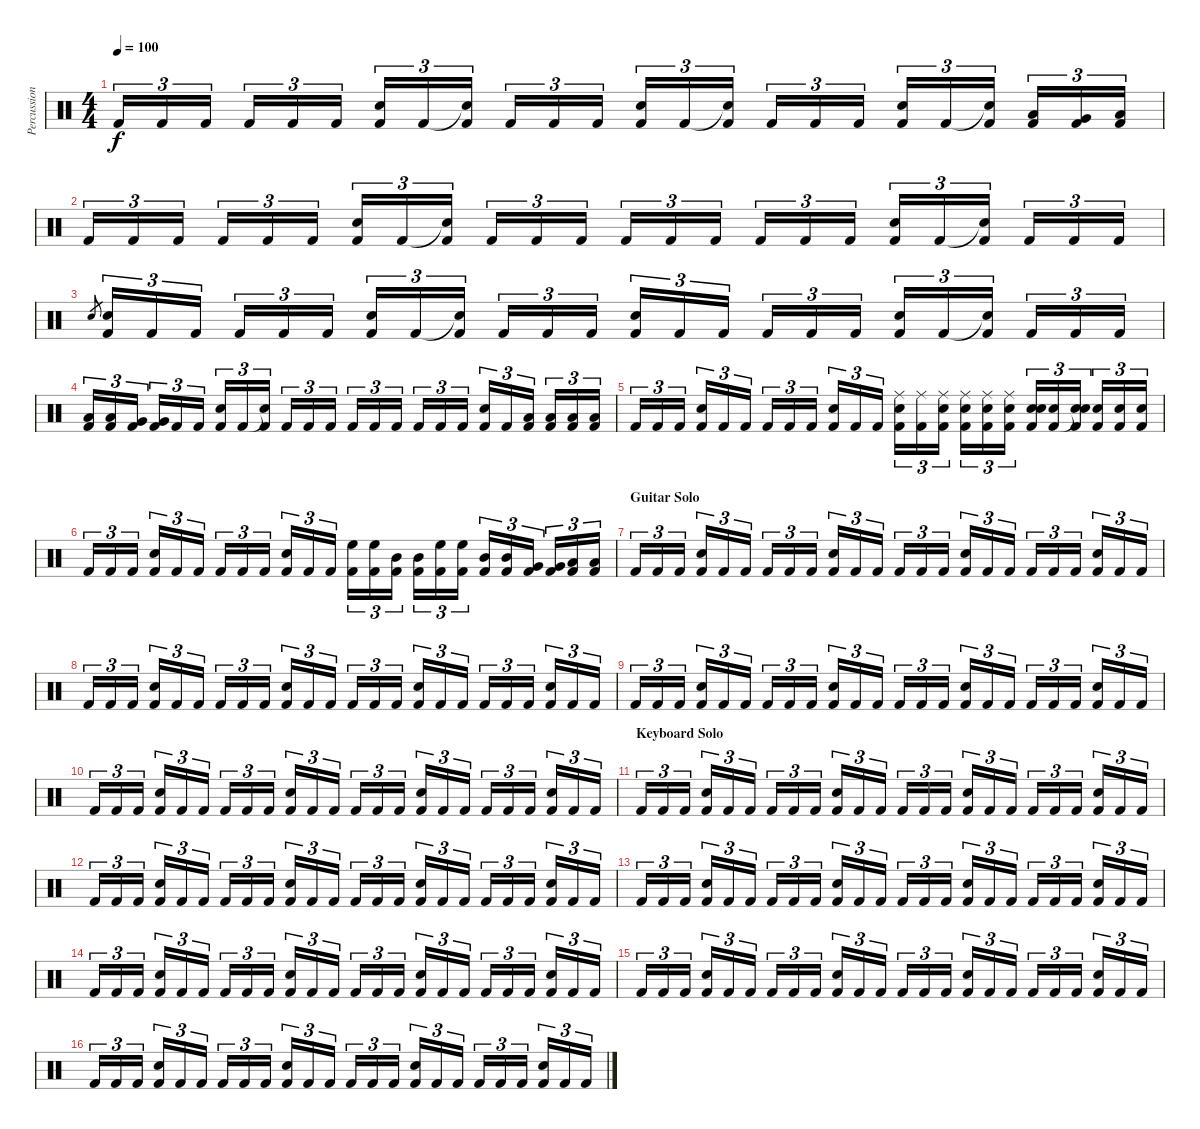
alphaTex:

\track ("Percussions" "Percussion") {instrument percussion}
\staff {score}
\articulation defaults
\ts (4 4)
\tempo 100
\clef neutral
\ks c "Kick (hit) 2".16{tu (3 2) dy f} "Kick (hit) 2".16{tu (3 2)} "Kick (hit) 2".16{tu (3 2)} "Kick (hit) 2".16{tu (3 2)} "Kick (hit) 2".16{tu (3 2)} "Kick (hit) 2".16{tu (3 2)}
("Snare (hit) 2" "Kick (hit) 2").16{tu (3 2)} "Kick (hit) 2".16{tu (3 2)} ("Snare (hit)"{t} "Kick (hit) 2").16{tu (3 2)} "Kick (hit) 2".16{tu (3 2)} "Kick (hit) 2".16{tu (3 2)} "Kick (hit) 2".16{tu (3 2)} ("Snare (hit) 2" "Kick (hit) 2").16{tu (3 2)} "Kick (hit) 2".16{tu (3 2)} ("Snare (hit)"{t} "Kick (hit) 2").16{tu (3 2)} "Kick (hit) 2".16{tu (3 2)} "Kick (hit) 2".16{tu (3 2)} "Kick (hit) 2".16{tu (3 2)} ("Snare (hit) 2" "Kick (hit) 2").16{tu (3 2)} "Kick (hit) 2".16{tu (3 2)} ("Snare (hit)"{t} "Kick (hit) 2").16{tu (3 2)} ("Low Tom (hit)" "Kick (hit) 2").16{tu (3 2)} ("Very Low Tom (hit)" "Kick (hit) 2").16{tu (3 2)} ("Low Floor Tom (hit)" "Kick (hit) 2").16{tu (3 2)} |
"Kick (hit) 2".16{tu (3 2)} "Kick (hit) 2".16{tu (3 2)} "Kick (hit) 2".16{tu (3 2)} "Kick (hit) 2".16{tu (3 2)} "Kick (hit) 2".16{tu (3 2)} "Kick (hit) 2".16{tu (3 2)} ("Snare (hit) 2" "Kick (hit) 2").16{tu (3 2)} "Kick (hit) 2".16{tu (3 2)} ("Snare (hit)"{t} "Kick (hit) 2").16{tu (3 2)} "Kick (hit) 2".16{tu (3 2)} "Kick (hit) 2".16{tu (3 2)} "Kick (hit) 2".16{tu (3 2)} "Kick (hit) 2".16{tu (3 2)} "Kick (hit) 2".16{tu (3 2)} "Kick (hit) 2".16{tu (3 2)} "Kick (hit) 2".16{tu (3 2)} "Kick (hit) 2".16{tu (3 2)} "Kick (hit) 2".16{tu (3 2)} ("Snare (hit) 2" "Kick (hit) 2").16{tu (3 2)} "Kick (hit) 2".16{tu (3 2)} ("Snare (hit)"{t} "Kick (hit) 2").16{tu (3 2)} "Kick (hit) 2".16{tu (3 2)} "Kick (hit) 2".16{tu (3 2)} "Kick (hit) 2".16{tu (3 2)} |
"Electric Snare (hit)".8{gr} ("Electric Snare (hit)" "Kick (hit) 2").16{tu (3 2)} "Kick (hit) 2".16{tu (3 2)} "Kick (hit) 2".16{tu (3 2)} "Kick (hit) 2".16{tu (3 2)} "Kick (hit) 2".16{tu (3 2)} "Kick (hit) 2".16{tu (3 2)} ("Snare (hit) 2" "Kick (hit) 2").16{tu (3 2)} "Kick (hit) 2".16{tu (3 2)} ("Snare (hit)"{t} "Kick (hit) 2").16{tu (3 2)} "Kick (hit) 2".16{tu (3 2)} "Kick (hit) 2".16{tu (3 2)} "Kick (hit) 2".16{tu (3 2)} ("Snare (hit) 2" "Kick (hit) 2").16{tu (3 2)} "Kick (hit) 2".16{tu (3 2)} "Kick (hit) 2".16{tu (3 2)} "Kick (hit) 2".16{tu (3 2)} "Kick (hit) 2".16{tu (3 2)} "Kick (hit) 2".16{tu (3 2)} ("Snare (hit) 2" "Kick (hit) 2").16{tu (3 2)} "Kick (hit) 2".16{tu (3 2)} ("Snare (hit)"{t} "Kick (hit) 2").16{tu (3 2)} "Kick (hit) 2".16{tu (3 2)} "Kick (hit) 2".16{tu (3 2)} "Kick (hit) 2".16{tu (3 2)} |
("Low Tom (hit)" "Kick (hit) 2").16{tu (3 2)} ("Low Tom (hit)" "Kick (hit) 2").16{tu (3 2)} ("Very Low Tom (hit)" "Kick (hit) 2").16{tu (3 2)} ("Very Low Tom (hit)" "Kick (hit) 2").16{tu (3 2)} "Kick (hit) 2".16{tu (3 2)} "Kick (hit) 2".16{tu (3 2)} ("Snare (hit) 2" "Kick (hit) 2").16{tu (3 2)} "Kick (hit) 2".16{tu (3 2)} ("Snare (hit)"{t} "Kick (hit) 2").16{tu (3 2)} "Kick (hit) 2".16{tu (3 2)} "Kick (hit) 2".16{tu (3 2)} "Kick (hit) 2".16{tu (3 2)} "Kick (hit) 2".16{tu (3 2)} "Kick (hit) 2".16{tu (3 2)} "Kick (hit) 2".16{tu (3 2)} "Kick (hit) 2".16{tu (3 2)} "Kick (hit) 2".16{tu (3 2)} "Kick (hit) 2".16{tu (3 2)} ("Snare (hit) 2" "Kick (hit) 2").16{tu (3 2)} "Kick (hit) 2".16{tu (3 2)} ("Low Tom (hit)" "Kick (hit) 2").16{tu (3 2)} ("Low Tom (hit)" "Kick (hit) 2").16{tu (3 2)} ("Low Floor Tom (hit)" "Kick (hit) 2").16{tu (3 2)} ("Low Floor Tom (hit)" "Kick (hit) 2").16{tu (3 2)} |
"Kick (hit) 2".16{tu (3 2)} "Kick (hit) 2".16{tu (3 2)} "Kick (hit) 2".16{tu (3 2)} ("Electric Snare (hit)" "Kick (hit) 2").16{tu (3 2)} "Kick (hit) 2".16{tu (3 2)} "Kick (hit) 2".16{tu (3 2)} "Kick (hit) 2".16{tu (3 2)} "Kick (hit) 2".16{tu (3 2)} "Kick (hit) 2".16{tu (3 2)} ("Electric Snare (hit)" "Kick (hit) 2").16{tu (3 2)} "Kick (hit) 2".16{tu (3 2)} "Kick (hit) 2".16{tu (3 2)} ("Electric Snare (hit)" "Ride (middle)" "Kick (hit) 2").16{tu (3 2)} ("Ride (middle)" "Kick (hit) 2").16{tu (3 2)} ("Electric Snare (hit)" "Ride (middle)" "Kick (hit) 2").16{tu (3 2)} ("Electric Snare (hit)" "Ride (middle)" "Kick (hit) 2").16{tu (3 2)} ("Electric Snare (hit)" "Ride (middle)" "Kick (hit) 2").16{tu (3 2)} ("Electric Snare (hit)" "Ride (middle)" "Kick (hit) 2").16{tu (3 2)} ("Electric Snare (hit)" "Snare (hit) 2" "Kick (hit) 2").16{tu (3 2)} ("Electric Snare (hit)" "Kick (hit) 2").16{tu (3 2)} ("Electric Snare (hit)" "Snare (hit)"{t} "Kick (hit) 2").16{tu (3 2)} ("Electric Snare (hit)" "Kick (hit) 2").16{tu (3 2)} ("Electric Snare (hit)" "Kick (hit) 2").16{tu (3 2)} ("Electric Snare (hit)" "Kick (hit) 2").16{tu (3 2)} |
"Kick (hit) 2".16{tu (3 2)} "Kick (hit) 2".16{tu (3 2)} "Kick (hit) 2".16{tu (3 2)} ("Electric Snare (hit)" "Kick (hit) 2").16{tu (3 2)} "Kick (hit) 2".16{tu (3 2)} "Kick (hit) 2".16{tu (3 2)} "Kick (hit) 2".16{tu (3 2)} "Kick (hit) 2".16{tu (3 2)} "Kick (hit) 2".16{tu (3 2)} ("Electric Snare (hit)" "Kick (hit) 2").16{tu (3 2)} "Kick (hit) 2".16{tu (3 2)} "Kick (hit) 2".16{tu (3 2)} ("High Floor Tom (hit)" "Kick (hit) 2").16{tu (3 2)} ("High Floor Tom (hit)" "Kick (hit) 2").16{tu (3 2)} ("Mid Tom (hit)" "Kick (hit) 2").16{tu (3 2)} ("Mid Tom (hit)" "Kick (hit) 2").16{tu (3 2)} ("High Floor Tom (hit)" "Kick (hit) 2").16{tu (3 2)} ("High Floor Tom (hit)" "Kick (hit) 2").16{tu (3 2)} ("Mid Tom (hit)" "Kick (hit) 2").16{tu (3 2)} ("Mid Tom (hit)" "Kick (hit) 2").16{tu (3 2)} ("Very Low Tom (hit)" "Kick (hit) 2").16{tu (3 2)} ("Very Low Tom (hit)" "Kick (hit) 2").16{tu (3 2)} ("Low Floor Tom (hit)" "Kick (hit) 2").16{tu (3 2)} ("Low Floor Tom (hit)" "Kick (hit) 2").16{tu (3 2)} |
\section ("" "Guitar Solo")
"Kick (hit) 2".16{tu (3 2)} "Kick (hit) 2".16{tu (3 2)} "Kick (hit) 2".16{tu (3 2)} ("Electric Snare (hit)" "Kick (hit) 2").16{tu (3 2)} "Kick (hit) 2".16{tu (3 2)} "Kick (hit) 2".16{tu (3 2)} "Kick (hit) 2".16{tu (3 2)} "Kick (hit) 2".16{tu (3 2)} "Kick (hit) 2".16{tu (3 2)} ("Electric Snare (hit)" "Kick (hit) 2").16{tu (3 2)} "Kick (hit) 2".16{tu (3 2)} "Kick (hit) 2".16{tu (3 2)} "Kick (hit) 2".16{tu (3 2)} "Kick (hit) 2".16{tu (3 2)} "Kick (hit) 2".16{tu (3 2)} ("Electric Snare (hit)" "Kick (hit) 2").16{tu (3 2)} "Kick (hit) 2".16{tu (3 2)} "Kick (hit) 2".16{tu (3 2)} "Kick (hit) 2".16{tu (3 2)} "Kick (hit) 2".16{tu (3 2)} "Kick (hit) 2".16{tu (3 2)} ("Electric Snare (hit)" "Kick (hit) 2").16{tu (3 2)} "Kick (hit) 2".16{tu (3 2)} "Kick (hit) 2".16{tu (3 2)} |
"Kick (hit) 2".16{tu (3 2)} "Kick (hit) 2".16{tu (3 2)} "Kick (hit) 2".16{tu (3 2)} ("Electric Snare (hit)" "Kick (hit) 2").16{tu (3 2)} "Kick (hit) 2".16{tu (3 2)} "Kick (hit) 2".16{tu (3 2)} "Kick (hit) 2".16{tu (3 2)} "Kick (hit) 2".16{tu (3 2)} "Kick (hit) 2".16{tu (3 2)} ("Electric Snare (hit)" "Kick (hit) 2").16{tu (3 2)} "Kick (hit) 2".16{tu (3 2)} "Kick (hit) 2".16{tu (3 2)} "Kick (hit) 2".16{tu (3 2)} "Kick (hit) 2".16{tu (3 2)} "Kick (hit) 2".16{tu (3 2)} ("Electric Snare (hit)" "Kick (hit) 2").16{tu (3 2)} "Kick (hit) 2".16{tu (3 2)} "Kick (hit) 2".16{tu (3 2)} "Kick (hit) 2".16{tu (3 2)} "Kick (hit) 2".16{tu (3 2)} "Kick (hit) 2".16{tu (3 2)} ("Electric Snare (hit)" "Kick (hit) 2").16{tu (3 2)} "Kick (hit) 2".16{tu (3 2)} "Kick (hit) 2".16{tu (3 2)} |
"Kick (hit) 2".16{tu (3 2)} "Kick (hit) 2".16{tu (3 2)} "Kick (hit) 2".16{tu (3 2)} ("Electric Snare (hit)" "Kick (hit) 2").16{tu (3 2)} "Kick (hit) 2".16{tu (3 2)} "Kick (hit) 2".16{tu (3 2)} "Kick (hit) 2".16{tu (3 2)} "Kick (hit) 2".16{tu (3 2)} "Kick (hit) 2".16{tu (3 2)} ("Electric Snare (hit)" "Kick (hit) 2").16{tu (3 2)} "Kick (hit) 2".16{tu (3 2)} "Kick (hit) 2".16{tu (3 2)} "Kick (hit) 2".16{tu (3 2)} "Kick (hit) 2".16{tu (3 2)} "Kick (hit) 2".16{tu (3 2)} ("Electric Snare (hit)" "Kick (hit) 2").16{tu (3 2)} "Kick (hit) 2".16{tu (3 2)} "Kick (hit) 2".16{tu (3 2)} "Kick (hit) 2".16{tu (3 2)} "Kick (hit) 2".16{tu (3 2)} "Kick (hit) 2".16{tu (3 2)} ("Electric Snare (hit)" "Kick (hit) 2").16{tu (3 2)} "Kick (hit) 2".16{tu (3 2)} "Kick (hit) 2".16{tu (3 2)} |
"Kick (hit) 2".16{tu (3 2)} "Kick (hit) 2".16{tu (3 2)} "Kick (hit) 2".16{tu (3 2)} ("Electric Snare (hit)" "Kick (hit) 2").16{tu (3 2)} "Kick (hit) 2".16{tu (3 2)} "Kick (hit) 2".16{tu (3 2)} "Kick (hit) 2".16{tu (3 2)} "Kick (hit) 2".16{tu (3 2)} "Kick (hit) 2".16{tu (3 2)} ("Electric Snare (hit)" "Kick (hit) 2").16{tu (3 2)} "Kick (hit) 2".16{tu (3 2)} "Kick (hit) 2".16{tu (3 2)} "Kick (hit) 2".16{tu (3 2)} "Kick (hit) 2".16{tu (3 2)} "Kick (hit) 2".16{tu (3 2)} ("Electric Snare (hit)" "Kick (hit) 2").16{tu (3 2)} "Kick (hit) 2".16{tu (3 2)} "Kick (hit) 2".16{tu (3 2)} "Kick (hit) 2".16{tu (3 2)} "Kick (hit) 2".16{tu (3 2)} "Kick (hit) 2".16{tu (3 2)} ("Electric Snare (hit)" "Kick (hit) 2").16{tu (3 2)} "Kick (hit) 2".16{tu (3 2)} "Kick (hit) 2".16{tu (3 2)} |
\section ("" "Keyboard Solo")
"Kick (hit) 2".16{tu (3 2)} "Kick (hit) 2".16{tu (3 2)} "Kick (hit) 2".16{tu (3 2)} ("Electric Snare (hit)" "Kick (hit) 2").16{tu (3 2)} "Kick (hit) 2".16{tu (3 2)} "Kick (hit) 2".16{tu (3 2)} "Kick (hit) 2".16{tu (3 2)} "Kick (hit) 2".16{tu (3 2)} "Kick (hit) 2".16{tu (3 2)} ("Electric Snare (hit)" "Kick (hit) 2").16{tu (3 2)} "Kick (hit) 2".16{tu (3 2)} "Kick (hit) 2".16{tu (3 2)} "Kick (hit) 2".16{tu (3 2)} "Kick (hit) 2".16{tu (3 2)} "Kick (hit) 2".16{tu (3 2)} ("Electric Snare (hit)" "Kick (hit) 2").16{tu (3 2)} "Kick (hit) 2".16{tu (3 2)} "Kick (hit) 2".16{tu (3 2)} "Kick (hit) 2".16{tu (3 2)} "Kick (hit) 2".16{tu (3 2)} "Kick (hit) 2".16{tu (3 2)} ("Electric Snare (hit)" "Kick (hit) 2").16{tu (3 2)} "Kick (hit) 2".16{tu (3 2)} "Kick (hit) 2".16{tu (3 2)} |
"Kick (hit) 2".16{tu (3 2)} "Kick (hit) 2".16{tu (3 2)} "Kick (hit) 2".16{tu (3 2)} ("Electric Snare (hit)" "Kick (hit) 2").16{tu (3 2)} "Kick (hit) 2".16{tu (3 2)} "Kick (hit) 2".16{tu (3 2)} "Kick (hit) 2".16{tu (3 2)} "Kick (hit) 2".16{tu (3 2)} "Kick (hit) 2".16{tu (3 2)} ("Electric Snare (hit)" "Kick (hit) 2").16{tu (3 2)} "Kick (hit) 2".16{tu (3 2)} "Kick (hit) 2".16{tu (3 2)} "Kick (hit) 2".16{tu (3 2)} "Kick (hit) 2".16{tu (3 2)} "Kick (hit) 2".16{tu (3 2)} ("Electric Snare (hit)" "Kick (hit) 2").16{tu (3 2)} "Kick (hit) 2".16{tu (3 2)} "Kick (hit) 2".16{tu (3 2)} "Kick (hit) 2".16{tu (3 2)} "Kick (hit) 2".16{tu (3 2)} "Kick (hit) 2".16{tu (3 2)} ("Electric Snare (hit)" "Kick (hit) 2").16{tu (3 2)} "Kick (hit) 2".16{tu (3 2)} "Kick (hit) 2".16{tu (3 2)} |
"Kick (hit) 2".16{tu (3 2)} "Kick (hit) 2".16{tu (3 2)} "Kick (hit) 2".16{tu (3 2)} ("Electric Snare (hit)" "Kick (hit) 2").16{tu (3 2)} "Kick (hit) 2".16{tu (3 2)} "Kick (hit) 2".16{tu (3 2)} "Kick (hit) 2".16{tu (3 2)} "Kick (hit) 2".16{tu (3 2)} "Kick (hit) 2".16{tu (3 2)} ("Electric Snare (hit)" "Kick (hit) 2").16{tu (3 2)} "Kick (hit) 2".16{tu (3 2)} "Kick (hit) 2".16{tu (3 2)} "Kick (hit) 2".16{tu (3 2)} "Kick (hit) 2".16{tu (3 2)} "Kick (hit) 2".16{tu (3 2)} ("Electric Snare (hit)" "Kick (hit) 2").16{tu (3 2)} "Kick (hit) 2".16{tu (3 2)} "Kick (hit) 2".16{tu (3 2)} "Kick (hit) 2".16{tu (3 2)} "Kick (hit) 2".16{tu (3 2)} "Kick (hit) 2".16{tu (3 2)} ("Electric Snare (hit)" "Kick (hit) 2").16{tu (3 2)} "Kick (hit) 2".16{tu (3 2)} "Kick (hit) 2".16{tu (3 2)} |
"Kick (hit) 2".16{tu (3 2)} "Kick (hit) 2".16{tu (3 2)} "Kick (hit) 2".16{tu (3 2)} ("Electric Snare (hit)" "Kick (hit) 2").16{tu (3 2)} "Kick (hit) 2".16{tu (3 2)} "Kick (hit) 2".16{tu (3 2)} "Kick (hit) 2".16{tu (3 2)} "Kick (hit) 2".16{tu (3 2)} "Kick (hit) 2".16{tu (3 2)} ("Electric Snare (hit)" "Kick (hit) 2").16{tu (3 2)} "Kick (hit) 2".16{tu (3 2)} "Kick (hit) 2".16{tu (3 2)} "Kick (hit) 2".16{tu (3 2)} "Kick (hit) 2".16{tu (3 2)} "Kick (hit) 2".16{tu (3 2)} ("Electric Snare (hit)" "Kick (hit) 2").16{tu (3 2)} "Kick (hit) 2".16{tu (3 2)} "Kick (hit) 2".16{tu (3 2)} "Kick (hit) 2".16{tu (3 2)} "Kick (hit) 2".16{tu (3 2)} "Kick (hit) 2".16{tu (3 2)} ("Electric Snare (hit)" "Kick (hit) 2").16{tu (3 2)} "Kick (hit) 2".16{tu (3 2)} "Kick (hit) 2".16{tu (3 2)} |
"Kick (hit) 2".16{tu (3 2)} "Kick (hit) 2".16{tu (3 2)} "Kick (hit) 2".16{tu (3 2)} ("Electric Snare (hit)" "Kick (hit) 2").16{tu (3 2)} "Kick (hit) 2".16{tu (3 2)} "Kick (hit) 2".16{tu (3 2)} "Kick (hit) 2".16{tu (3 2)} "Kick (hit) 2".16{tu (3 2)} "Kick (hit) 2".16{tu (3 2)} ("Electric Snare (hit)" "Kick (hit) 2").16{tu (3 2)} "Kick (hit) 2".16{tu (3 2)} "Kick (hit) 2".16{tu (3 2)} "Kick (hit) 2".16{tu (3 2)} "Kick (hit) 2".16{tu (3 2)} "Kick (hit) 2".16{tu (3 2)} ("Electric Snare (hit)" "Kick (hit) 2").16{tu (3 2)} "Kick (hit) 2".16{tu (3 2)} "Kick (hit) 2".16{tu (3 2)} "Kick (hit) 2".16{tu (3 2)} "Kick (hit) 2".16{tu (3 2)} "Kick (hit) 2".16{tu (3 2)} ("Electric Snare (hit)" "Kick (hit) 2").16{tu (3 2)} "Kick (hit) 2".16{tu (3 2)} "Kick (hit) 2".16{tu (3 2)} |
"Kick (hit) 2".16{tu (3 2)} "Kick (hit) 2".16{tu (3 2)} "Kick (hit) 2".16{tu (3 2)} ("Electric Snare (hit)" "Kick (hit) 2").16{tu (3 2)} "Kick (hit) 2".16{tu (3 2)} "Kick (hit) 2".16{tu (3 2)} "Kick (hit) 2".16{tu (3 2)} "Kick (hit) 2".16{tu (3 2)} "Kick (hit) 2".16{tu (3 2)} ("Electric Snare (hit)" "Kick (hit) 2").16{tu (3 2)} "Kick (hit) 2".16{tu (3 2)} "Kick (hit) 2".16{tu (3 2)} "Kick (hit) 2".16{tu (3 2)} "Kick (hit) 2".16{tu (3 2)} "Kick (hit) 2".16{tu (3 2)} ("Electric Snare (hit)" "Kick (hit) 2").16{tu (3 2)} "Kick (hit) 2".16{tu (3 2)} "Kick (hit) 2".16{tu (3 2)} "Kick (hit) 2".16{tu (3 2)} "Kick (hit) 2".16{tu (3 2)} "Kick (hit) 2".16{tu (3 2)} ("Electric Snare (hit)" "Kick (hit) 2").16{tu (3 2)} "Kick (hit) 2".16{tu (3 2)} "Kick (hit) 2".16{tu (3 2)}
